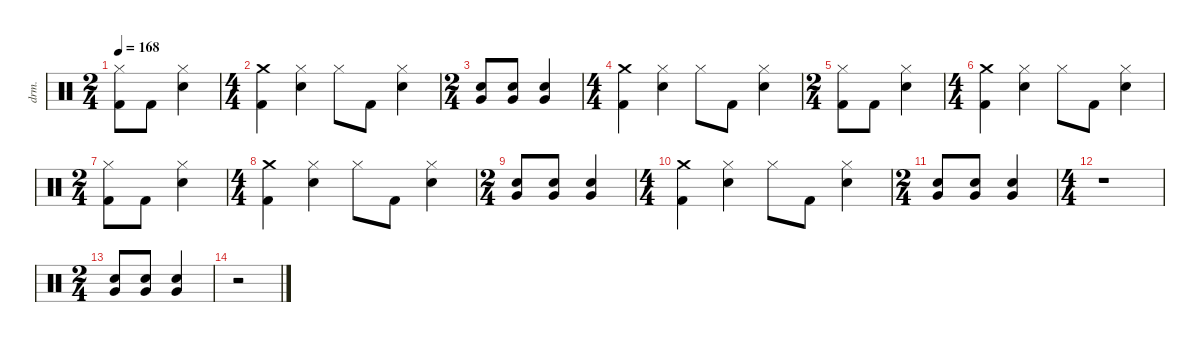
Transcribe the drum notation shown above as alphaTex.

\defaultSystemsLayout 4
\hideDynamics
\bracketExtendMode nobrackets
\otherSystemsTrackNameOrientation horizontal
\track ("Drums" "drm.") {instrument percussion}
\staff {score}
\articulation defaults
\ts (2 4)
\beaming (8 2 2)
\tempo 168
\clef neutral
\ks c
("Kick (hit) 2" "Hi-Hat (closed)").8{dy fff} "Kick (hit) 2".8 ("Snare (hit) 2" "Hi-Hat (closed)").4 |
\ts (4 4)
\beaming (8 2 2 2 2)
("Kick (hit) 2" "Crash medium (hit)").4 ("Hi-Hat (closed)" "Snare (hit) 2").4 "Hi-Hat (closed)".8 "Kick (hit) 2".8 ("Snare (hit) 2" "Hi-Hat (closed)").4 |
\ts (2 4)
\beaming (8 2 2)
("Very Low Tom (hit)" "Snare (hit) 2").8 ("Very Low Tom (hit)" "Snare (hit) 2").8 ("Snare (hit) 2" "Very Low Tom (hit)").4 |
\ts (4 4)
\beaming (8 2 2 2 2)
("Kick (hit) 2" "Crash medium (hit)").4 ("Hi-Hat (closed)" "Snare (hit) 2").4 "Hi-Hat (closed)".8 "Kick (hit) 2".8 ("Snare (hit) 2" "Hi-Hat (closed)").4 |
\ts (2 4)
\beaming (8 2 2)
("Kick (hit) 2" "Hi-Hat (closed)").8 "Kick (hit) 2".8 ("Snare (hit) 2" "Hi-Hat (closed)").4 |
\ts (4 4)
\beaming (8 2 2 2 2)
("Kick (hit) 2" "Crash medium (hit)").4 ("Hi-Hat (closed)" "Snare (hit) 2").4 "Hi-Hat (closed)".8 "Kick (hit) 2".8 ("Snare (hit) 2" "Hi-Hat (closed)").4 |
\ts (2 4)
\beaming (8 2 2)
("Kick (hit) 2" "Hi-Hat (closed)").8 "Kick (hit) 2".8 ("Snare (hit) 2" "Hi-Hat (closed)").4 |
\ts (4 4)
\beaming (8 2 2 2 2)
("Kick (hit) 2" "Crash medium (hit)").4 ("Hi-Hat (closed)" "Snare (hit) 2").4 "Hi-Hat (closed)".8 "Kick (hit) 2".8 ("Snare (hit) 2" "Hi-Hat (closed)").4 |
\ts (2 4)
\beaming (8 2 2)
("Very Low Tom (hit)" "Snare (hit) 2").8 ("Very Low Tom (hit)" "Snare (hit) 2").8 ("Snare (hit) 2" "Very Low Tom (hit)").4 |
\ts (4 4)
\beaming (8 2 2 2 2)
("Kick (hit) 2" "Crash medium (hit)").4 ("Hi-Hat (closed)" "Snare (hit) 2").4 "Hi-Hat (closed)".8 "Kick (hit) 2".8 ("Snare (hit) 2" "Hi-Hat (closed)").4 |
\ts (2 4)
\beaming (8 2 2)
("Very Low Tom (hit)" "Snare (hit) 2").8 ("Very Low Tom (hit)" "Snare (hit) 2").8 ("Snare (hit) 2" "Very Low Tom (hit)").4 |
\ts (4 4)
\beaming (8 2 2 2 2)
r.1 |
\ts (2 4)
\beaming (8 2 2)
("Very Low Tom (hit)" "Snare (hit) 2").8 ("Very Low Tom (hit)" "Snare (hit) 2").8 ("Snare (hit) 2" "Very Low Tom (hit)").4 |
r.2
